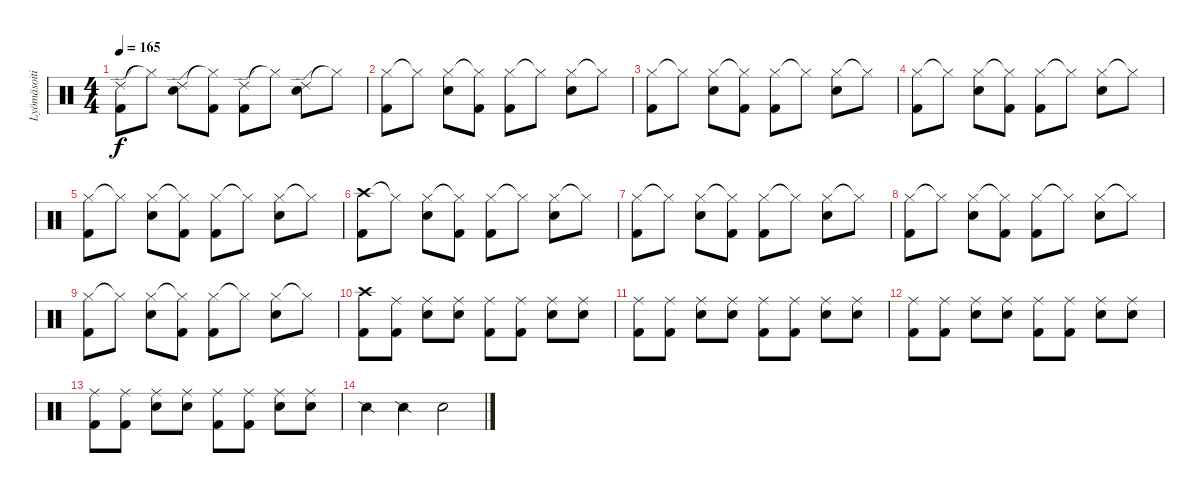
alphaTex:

\track ("Lyömäsoitin" "Lyömäsoiti") {instrument percussion}
\staff {score}
\articulation defaults
\ts (4 4)
\tempo 165
\clef neutral
\ks c
("Ride (edge) 2" "Kick (hit) 2").8{dy f} "Hi-Hat (closed)"{t}.8 ("Ride (edge) 2" "Snare (hit) 2").8 ("Hi-Hat (closed)"{t} "Kick (hit) 2").8 ("Ride (edge) 2" "Kick (hit) 2").8 "Hi-Hat (closed)"{t}.8 ("Ride (edge) 2" "Snare (hit) 2").8 "Hi-Hat (closed)"{t}.8 |
("Hi-Hat (closed)" "Kick (hit) 2").8 "Hi-Hat (closed)"{t}.8 ("Hi-Hat (closed)" "Snare (hit) 2").8 ("Hi-Hat (closed)"{t} "Kick (hit) 2").8 ("Hi-Hat (closed)" "Kick (hit) 2").8 "Hi-Hat (closed)"{t}.8 ("Hi-Hat (closed)" "Snare (hit) 2").8 "Hi-Hat (closed)"{t}.8 |
("Hi-Hat (closed)" "Kick (hit) 2").8 "Hi-Hat (closed)"{t}.8 ("Hi-Hat (closed)" "Snare (hit) 2").8 ("Hi-Hat (closed)"{t} "Kick (hit) 2").8 ("Hi-Hat (closed)" "Kick (hit) 2").8 "Hi-Hat (closed)"{t}.8 ("Hi-Hat (closed)" "Snare (hit) 2").8 "Hi-Hat (closed)"{t}.8 |
("Hi-Hat (closed)" "Kick (hit) 2").8 "Hi-Hat (closed)"{t}.8 ("Hi-Hat (closed)" "Snare (hit) 2").8 ("Hi-Hat (closed)"{t} "Kick (hit) 2").8 ("Hi-Hat (closed)" "Kick (hit) 2").8 "Hi-Hat (closed)"{t}.8 ("Hi-Hat (closed)" "Snare (hit) 2").8 "Hi-Hat (closed)"{t}.8 |
("Hi-Hat (closed)" "Kick (hit) 2").8 "Hi-Hat (closed)"{t}.8 ("Hi-Hat (closed)" "Snare (hit) 2").8 ("Hi-Hat (closed)"{t} "Kick (hit) 2").8 ("Hi-Hat (closed)" "Kick (hit) 2").8 "Hi-Hat (closed)"{t}.8 ("Hi-Hat (closed)" "Snare (hit) 2").8 "Hi-Hat (closed)"{t}.8 |
("Crash high (hit)" "Kick (hit) 2").8 "Hi-Hat (closed)"{t}.8 ("Hi-Hat (closed)" "Snare (hit) 2").8 ("Hi-Hat (closed)"{t} "Kick (hit) 2").8 ("Hi-Hat (closed)" "Kick (hit) 2").8 "Hi-Hat (closed)"{t}.8 ("Hi-Hat (closed)" "Snare (hit) 2").8 "Hi-Hat (closed)"{t}.8 |
("Hi-Hat (closed)" "Kick (hit) 2").8 "Hi-Hat (closed)"{t}.8 ("Hi-Hat (closed)" "Snare (hit) 2").8 ("Hi-Hat (closed)"{t} "Kick (hit) 2").8 ("Hi-Hat (closed)" "Kick (hit) 2").8 "Hi-Hat (closed)"{t}.8 ("Hi-Hat (closed)" "Snare (hit) 2").8 "Hi-Hat (closed)"{t}.8 |
("Hi-Hat (closed)" "Kick (hit) 2").8 "Hi-Hat (closed)"{t}.8 ("Hi-Hat (closed)" "Snare (hit) 2").8 ("Hi-Hat (closed)"{t} "Kick (hit) 2").8 ("Hi-Hat (closed)" "Kick (hit) 2").8 "Hi-Hat (closed)"{t}.8 ("Hi-Hat (closed)" "Snare (hit) 2").8 "Hi-Hat (closed)"{t}.8 |
("Hi-Hat (closed)" "Kick (hit) 2").8 "Hi-Hat (closed)"{t}.8 ("Hi-Hat (closed)" "Snare (hit) 2").8 ("Hi-Hat (closed)"{t} "Kick (hit) 2").8 ("Hi-Hat (closed)" "Kick (hit) 2").8 "Hi-Hat (closed)"{t}.8 ("Hi-Hat (closed)" "Snare (hit) 2").8 "Hi-Hat (closed)"{t}.8 |
("Crash high (hit)" "Kick (hit) 2").8 ("Ride (middle)" "Kick (hit) 2").8 ("Ride (middle)" "Snare (hit) 2").8 ("Ride (middle)" "Snare (hit) 2").8 ("Ride (middle)" "Kick (hit) 2").8 ("Ride (middle)" "Kick (hit) 2").8 ("Ride (middle)" "Snare (hit) 2").8 ("Ride (middle)" "Snare (hit) 2").8 |
("Ride (middle)" "Kick (hit) 2").8 ("Ride (middle)" "Kick (hit) 2").8 ("Ride (middle)" "Snare (hit) 2").8 ("Ride (middle)" "Snare (hit) 2").8 ("Ride (middle)" "Kick (hit) 2").8 ("Ride (middle)" "Kick (hit) 2").8 ("Ride (middle)" "Snare (hit) 2").8 ("Ride (middle)" "Snare (hit) 2").8 |
("Ride (middle)" "Kick (hit) 2").8 ("Ride (middle)" "Kick (hit) 2").8 ("Ride (middle)" "Snare (hit) 2").8 ("Ride (middle)" "Snare (hit) 2").8 ("Ride (middle)" "Kick (hit) 2").8 ("Ride (middle)" "Kick (hit) 2").8 ("Ride (middle)" "Snare (hit) 2").8 ("Ride (middle)" "Snare (hit) 2").8 |
("Ride (middle)" "Kick (hit) 2").8 ("Ride (middle)" "Kick (hit) 2").8 ("Ride (middle)" "Snare (hit) 2").8 ("Ride (middle)" "Snare (hit) 2").8 ("Ride (middle)" "Kick (hit) 2").8 ("Ride (middle)" "Kick (hit) 2").8 ("Ride (middle)" "Snare (hit) 2").8 ("Ride (middle)" "Snare (hit) 2").8 |
"Snare (side stick) 2".4 "Snare (side stick) 2".4 "Snare (hit)"{x}.2
